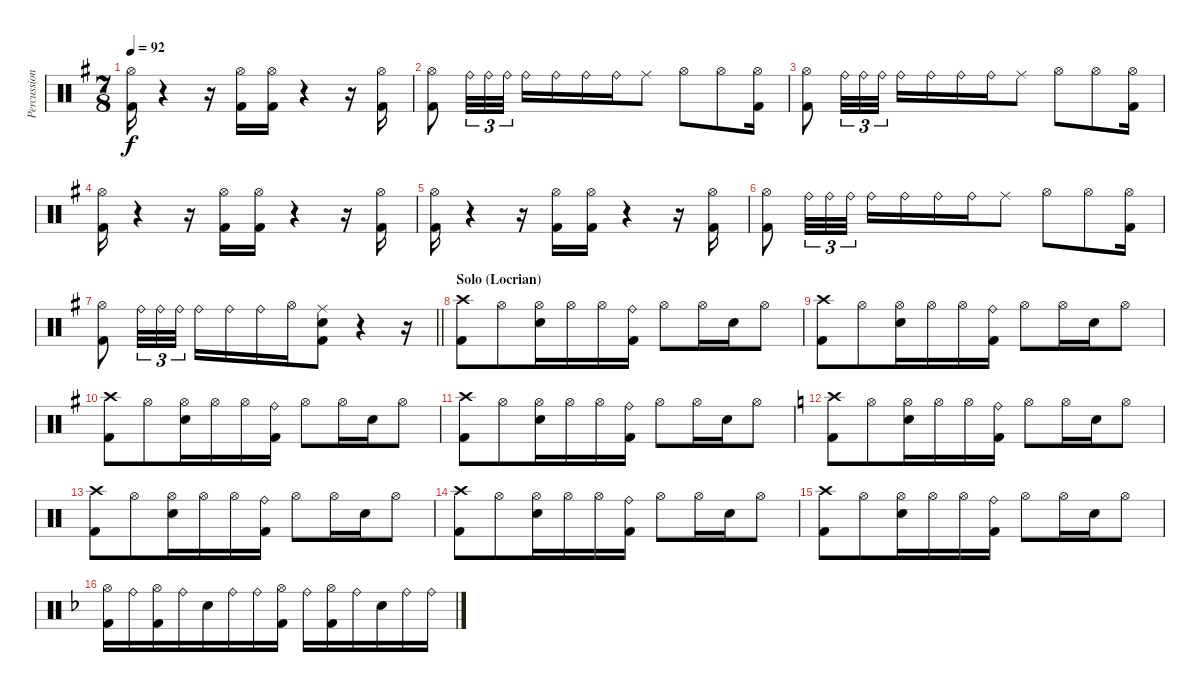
\track ("Percussion" "Percussion") {instrument percussion}
\staff {score}
\articulation defaults
\ts (7 8)
\tempo 92
\clef neutral
\ks eminor
("Hi-Hat (open)" "Kick (hit) 2").16{dy f} r.4 r.16 ("Hi-Hat (open)" "Kick (hit) 2").16 ("Hi-Hat (open)" "Kick (hit) 2").16 r.4 r.16 ("Hi-Hat (open)" "Kick (hit) 2").16 |
("Hi-Hat (open)" "Kick (hit) 2").8 "Ride (bell)".32{tu (3 2)} "Ride (bell)".32{tu (3 2)} "Ride (bell)".32{tu (3 2) beam splitsecondary} "Ride (bell)".16 "Ride (bell)".16 "Ride (bell)".16 "Ride (bell)".16 "Ride (middle)".8 "Hi-Hat (open)".8 "Hi-Hat (open)".8 ("Hi-Hat (open)" "Kick (hit) 2").16 |
("Hi-Hat (open)" "Kick (hit) 2").8 "Ride (bell)".32{tu (3 2)} "Ride (bell)".32{tu (3 2)} "Ride (bell)".32{tu (3 2) beam splitsecondary} "Ride (bell)".16 "Ride (bell)".16 "Ride (bell)".16 "Ride (bell)".16 "Ride (middle)".8 "Hi-Hat (open)".8 "Hi-Hat (open)".8 ("Hi-Hat (open)" "Kick (hit) 2").16 |
("Hi-Hat (open)" "Kick (hit) 2").16 r.4 r.16 ("Hi-Hat (open)" "Kick (hit) 2").16 ("Hi-Hat (open)" "Kick (hit) 2").16 r.4 r.16 ("Hi-Hat (open)" "Kick (hit) 2").16 |
("Hi-Hat (open)" "Kick (hit) 2").16 r.4 r.16 ("Hi-Hat (open)" "Kick (hit) 2").16 ("Hi-Hat (open)" "Kick (hit) 2").16 r.4 r.16 ("Hi-Hat (open)" "Kick (hit) 2").16 |
("Hi-Hat (open)" "Kick (hit) 2").8 "Ride (bell)".32{tu (3 2)} "Ride (bell)".32{tu (3 2)} "Ride (bell)".32{tu (3 2) beam splitsecondary} "Ride (bell)".16 "Ride (bell)".16 "Ride (bell)".16 "Ride (bell)".16 "Ride (middle)".8 "Hi-Hat (open)".8 "Hi-Hat (open)".8 ("Hi-Hat (open)" "Kick (hit) 2").16 |
\barLineRight lightlight
("Hi-Hat (open)" "Kick (hit) 2").8 "Ride (bell)".32{tu (3 2)} "Ride (bell)".32{tu (3 2)} "Ride (bell)".32{tu (3 2) beam splitsecondary} "Ride (bell)".16 "Ride (bell)".16 "Ride (bell)".16 "Hi-Hat (open)".16 ("Ride (middle)" "Electric Snare (hit)" "Kick (hit) 2").8 r.4 r.16 |
\section ("" "Solo (Locrian)")
("Crash high (hit)" "Kick (hit) 2").8 "Hi-Hat (open)".8 ("Hi-Hat (open)" "Electric Snare (hit)").16 "Hi-Hat (open)".16 "Hi-Hat (open)".16 ("Ride (bell)" "Kick (hit) 2").16 "Hi-Hat (open)".8 "Hi-Hat (open)".16 "Electric Snare (hit)".16 "Hi-Hat (open)".8 |
("Crash high (hit)" "Kick (hit) 2").8 "Hi-Hat (open)".8 ("Hi-Hat (open)" "Electric Snare (hit)").16 "Hi-Hat (open)".16 "Hi-Hat (open)".16 ("Ride (bell)" "Kick (hit) 2").16 "Hi-Hat (open)".8 "Hi-Hat (open)".16 "Electric Snare (hit)".16 "Hi-Hat (open)".8 |
("Crash high (hit)" "Kick (hit) 2").8 "Hi-Hat (open)".8 ("Hi-Hat (open)" "Electric Snare (hit)").16 "Hi-Hat (open)".16 "Hi-Hat (open)".16 ("Ride (bell)" "Kick (hit) 2").16 "Hi-Hat (open)".8 "Hi-Hat (open)".16 "Electric Snare (hit)".16 "Hi-Hat (open)".8 |
("Crash high (hit)" "Kick (hit) 2").8 "Hi-Hat (open)".8 ("Hi-Hat (open)" "Electric Snare (hit)").16 "Hi-Hat (open)".16 "Hi-Hat (open)".16 ("Ride (bell)" "Kick (hit) 2").16 "Hi-Hat (open)".8 "Hi-Hat (open)".16 "Electric Snare (hit)".16 "Hi-Hat (open)".8 |
\ks aminor
("Crash high (hit)" "Kick (hit) 2").8 "Hi-Hat (open)".8 ("Hi-Hat (open)" "Electric Snare (hit)").16 "Hi-Hat (open)".16 "Hi-Hat (open)".16 ("Ride (bell)" "Kick (hit) 2").16 "Hi-Hat (open)".8 "Hi-Hat (open)".16 "Electric Snare (hit)".16 "Hi-Hat (open)".8 |
("Crash high (hit)" "Kick (hit) 2").8 "Hi-Hat (open)".8 ("Hi-Hat (open)" "Electric Snare (hit)").16 "Hi-Hat (open)".16 "Hi-Hat (open)".16 ("Ride (bell)" "Kick (hit) 2").16 "Hi-Hat (open)".8 "Hi-Hat (open)".16 "Electric Snare (hit)".16 "Hi-Hat (open)".8 |
("Crash high (hit)" "Kick (hit) 2").8 "Hi-Hat (open)".8 ("Hi-Hat (open)" "Electric Snare (hit)").16 "Hi-Hat (open)".16 "Hi-Hat (open)".16 ("Ride (bell)" "Kick (hit) 2").16 "Hi-Hat (open)".8 "Hi-Hat (open)".16 "Electric Snare (hit)".16 "Hi-Hat (open)".8 |
("Crash high (hit)" "Kick (hit) 2").8 "Hi-Hat (open)".8 ("Hi-Hat (open)" "Electric Snare (hit)").16 "Hi-Hat (open)".16 "Hi-Hat (open)".16 ("Ride (bell)" "Kick (hit) 2").16 "Hi-Hat (open)".8 "Hi-Hat (open)".16 "Electric Snare (hit)".16 "Hi-Hat (open)".8 |
\ks dminor
("Hi-Hat (open)" "Kick (hit) 2").16 "Ride (bell)".16 ("Hi-Hat (open)" "Kick (hit) 2").16 "Ride (bell)".16 "Electric Snare (hit)".16 "Ride (bell)".16 "Ride (bell)".16 ("Hi-Hat (open)" "Kick (hit) 2").16 "Ride (bell)".16 ("Hi-Hat (open)" "Kick (hit) 2").16 "Ride (bell)".16 "Electric Snare (hit)".16 "Ride (bell)".16 "Ride (bell)".16
